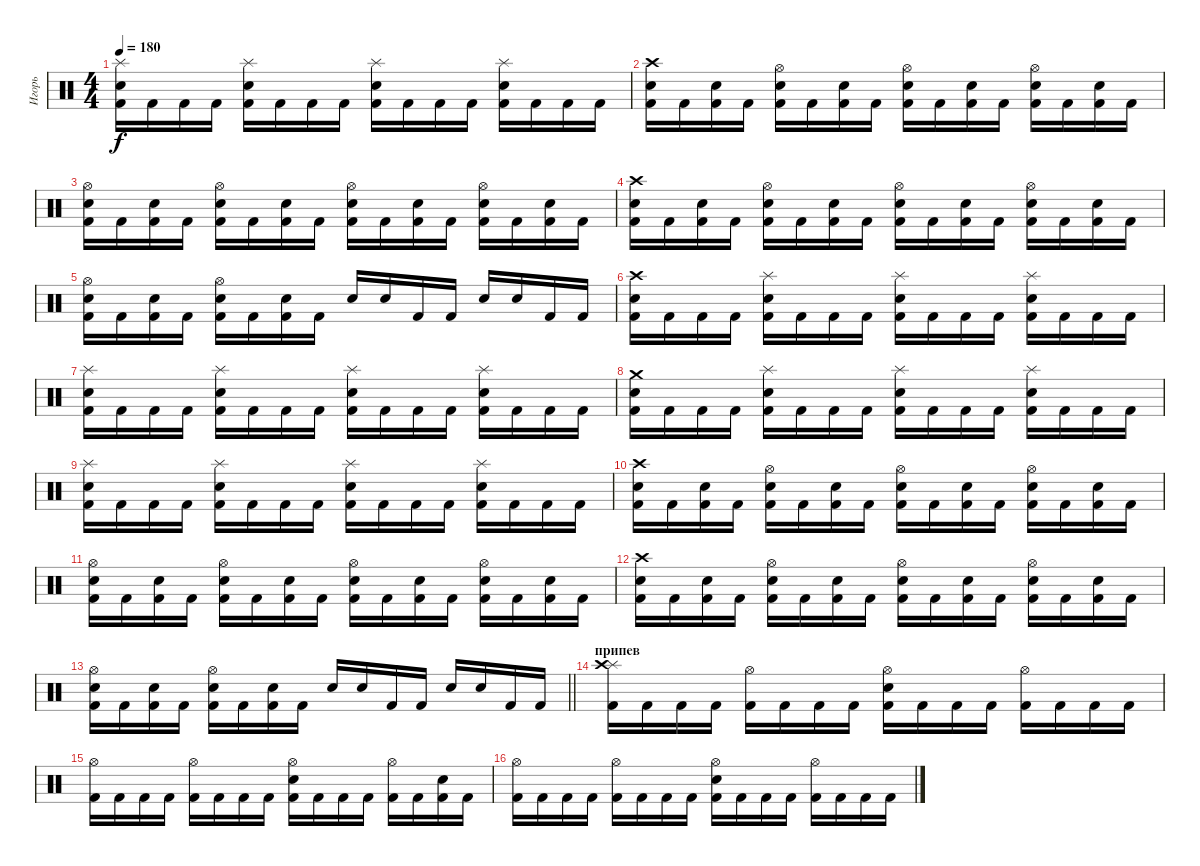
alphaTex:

\track ("Игорь" "Игорь") {instrument percussion}
\staff {score}
\articulation defaults
\ts (4 4)
\tempo 180
\clef neutral
\ks c
("Splash (hit)" "Electric Snare (hit)" "Kick (hit) 2").16{dy f} "Kick (hit) 2".16 "Kick (hit) 2".16 "Kick (hit) 2".16 ("Splash (hit)" "Electric Snare (hit)" "Kick (hit) 2").16 "Kick (hit) 2".16 "Kick (hit) 2".16 "Kick (hit) 2".16 ("Splash (hit)" "Electric Snare (hit)" "Kick (hit) 2").16 "Kick (hit) 2".16 "Kick (hit) 2".16 "Kick (hit) 2".16 ("Splash (hit)" "Electric Snare (hit)" "Kick (hit) 2").16 "Kick (hit) 2".16 "Kick (hit) 2".16 "Kick (hit) 2".16 |
("Crash high (hit)" "Electric Snare (hit)" "Kick (hit) 2").16 "Kick (hit) 2".16 ("Electric Snare (hit)" "Kick (hit) 2").16 "Kick (hit) 2".16 ("Hi-Hat (open)" "Electric Snare (hit)" "Kick (hit) 2").16 "Kick (hit) 2".16 ("Electric Snare (hit)" "Kick (hit) 2").16 "Kick (hit) 2".16 ("Hi-Hat (open)" "Electric Snare (hit)" "Kick (hit) 2").16 "Kick (hit) 2".16 ("Electric Snare (hit)" "Kick (hit) 2").16 "Kick (hit) 2".16 ("Hi-Hat (open)" "Electric Snare (hit)" "Kick (hit) 2").16 "Kick (hit) 2".16 ("Electric Snare (hit)" "Kick (hit) 2").16 "Kick (hit) 2".16 |
("Hi-Hat (open)" "Electric Snare (hit)" "Kick (hit) 2").16 "Kick (hit) 2".16 ("Electric Snare (hit)" "Kick (hit) 2").16 "Kick (hit) 2".16 ("Hi-Hat (open)" "Electric Snare (hit)" "Kick (hit) 2").16 "Kick (hit) 2".16 ("Electric Snare (hit)" "Kick (hit) 2").16 "Kick (hit) 2".16 ("Hi-Hat (open)" "Electric Snare (hit)" "Kick (hit) 2").16 "Kick (hit) 2".16 ("Electric Snare (hit)" "Kick (hit) 2").16 "Kick (hit) 2".16 ("Hi-Hat (open)" "Electric Snare (hit)" "Kick (hit) 2").16 "Kick (hit) 2".16 ("Electric Snare (hit)" "Kick (hit) 2").16 "Kick (hit) 2".16 |
("Crash high (hit)" "Electric Snare (hit)" "Kick (hit) 2").16 "Kick (hit) 2".16 ("Electric Snare (hit)" "Kick (hit) 2").16 "Kick (hit) 2".16 ("Hi-Hat (open)" "Electric Snare (hit)" "Kick (hit) 2").16 "Kick (hit) 2".16 ("Electric Snare (hit)" "Kick (hit) 2").16 "Kick (hit) 2".16 ("Hi-Hat (open)" "Electric Snare (hit)" "Kick (hit) 2").16 "Kick (hit) 2".16 ("Electric Snare (hit)" "Kick (hit) 2").16 "Kick (hit) 2".16 ("Hi-Hat (open)" "Electric Snare (hit)" "Kick (hit) 2").16 "Kick (hit) 2".16 ("Electric Snare (hit)" "Kick (hit) 2").16 "Kick (hit) 2".16 |
("Hi-Hat (open)" "Electric Snare (hit)" "Kick (hit) 2").16 "Kick (hit) 2".16 ("Electric Snare (hit)" "Kick (hit) 2").16 "Kick (hit) 2".16 ("Hi-Hat (open)" "Electric Snare (hit)" "Kick (hit) 2").16 "Kick (hit) 2".16 ("Electric Snare (hit)" "Kick (hit) 2").16 "Kick (hit) 2".16 "Electric Snare (hit)".16 "Electric Snare (hit)".16 "Kick (hit) 2".16 "Kick (hit) 2".16 "Electric Snare (hit)".16 "Electric Snare (hit)".16 "Kick (hit) 2".16 "Kick (hit) 2".16 |
("Crash high (hit)" "Electric Snare (hit)" "Kick (hit) 2").16 "Kick (hit) 2".16 "Kick (hit) 2".16 "Kick (hit) 2".16 ("Splash (hit)" "Electric Snare (hit)" "Kick (hit) 2").16 "Kick (hit) 2".16 "Kick (hit) 2".16 "Kick (hit) 2".16 ("Splash (hit)" "Electric Snare (hit)" "Kick (hit) 2").16 "Kick (hit) 2".16 "Kick (hit) 2".16 "Kick (hit) 2".16 ("Splash (hit)" "Electric Snare (hit)" "Kick (hit) 2").16 "Kick (hit) 2".16 "Kick (hit) 2".16 "Kick (hit) 2".16 |
("Splash (hit)" "Electric Snare (hit)" "Kick (hit) 2").16 "Kick (hit) 2".16 "Kick (hit) 2".16 "Kick (hit) 2".16 ("Splash (hit)" "Electric Snare (hit)" "Kick (hit) 2").16 "Kick (hit) 2".16 "Kick (hit) 2".16 "Kick (hit) 2".16 ("Splash (hit)" "Electric Snare (hit)" "Kick (hit) 2").16 "Kick (hit) 2".16 "Kick (hit) 2".16 "Kick (hit) 2".16 ("Splash (hit)" "Electric Snare (hit)" "Kick (hit) 2").16 "Kick (hit) 2".16 "Kick (hit) 2".16 "Kick (hit) 2".16 |
("Crash medium (hit)" "Electric Snare (hit)" "Kick (hit) 2").16 "Kick (hit) 2".16 "Kick (hit) 2".16 "Kick (hit) 2".16 ("Splash (hit)" "Electric Snare (hit)" "Kick (hit) 2").16 "Kick (hit) 2".16 "Kick (hit) 2".16 "Kick (hit) 2".16 ("Splash (hit)" "Electric Snare (hit)" "Kick (hit) 2").16 "Kick (hit) 2".16 "Kick (hit) 2".16 "Kick (hit) 2".16 ("Splash (hit)" "Electric Snare (hit)" "Kick (hit) 2").16 "Kick (hit) 2".16 "Kick (hit) 2".16 "Kick (hit) 2".16 |
("Splash (hit)" "Electric Snare (hit)" "Kick (hit) 2").16 "Kick (hit) 2".16 "Kick (hit) 2".16 "Kick (hit) 2".16 ("Splash (hit)" "Electric Snare (hit)" "Kick (hit) 2").16 "Kick (hit) 2".16 "Kick (hit) 2".16 "Kick (hit) 2".16 ("Splash (hit)" "Electric Snare (hit)" "Kick (hit) 2").16 "Kick (hit) 2".16 "Kick (hit) 2".16 "Kick (hit) 2".16 ("Splash (hit)" "Electric Snare (hit)" "Kick (hit) 2").16 "Kick (hit) 2".16 "Kick (hit) 2".16 "Kick (hit) 2".16 |
("Crash high (hit)" "Electric Snare (hit)" "Kick (hit) 2").16 "Kick (hit) 2".16 ("Electric Snare (hit)" "Kick (hit) 2").16 "Kick (hit) 2".16 ("Hi-Hat (open)" "Electric Snare (hit)" "Kick (hit) 2").16 "Kick (hit) 2".16 ("Electric Snare (hit)" "Kick (hit) 2").16 "Kick (hit) 2".16 ("Hi-Hat (open)" "Electric Snare (hit)" "Kick (hit) 2").16 "Kick (hit) 2".16 ("Electric Snare (hit)" "Kick (hit) 2").16 "Kick (hit) 2".16 ("Hi-Hat (open)" "Electric Snare (hit)" "Kick (hit) 2").16 "Kick (hit) 2".16 ("Electric Snare (hit)" "Kick (hit) 2").16 "Kick (hit) 2".16 |
("Hi-Hat (open)" "Electric Snare (hit)" "Kick (hit) 2").16 "Kick (hit) 2".16 ("Electric Snare (hit)" "Kick (hit) 2").16 "Kick (hit) 2".16 ("Hi-Hat (open)" "Electric Snare (hit)" "Kick (hit) 2").16 "Kick (hit) 2".16 ("Electric Snare (hit)" "Kick (hit) 2").16 "Kick (hit) 2".16 ("Hi-Hat (open)" "Electric Snare (hit)" "Kick (hit) 2").16 "Kick (hit) 2".16 ("Electric Snare (hit)" "Kick (hit) 2").16 "Kick (hit) 2".16 ("Hi-Hat (open)" "Electric Snare (hit)" "Kick (hit) 2").16 "Kick (hit) 2".16 ("Electric Snare (hit)" "Kick (hit) 2").16 "Kick (hit) 2".16 |
("Crash high (hit)" "Electric Snare (hit)" "Kick (hit) 2").16 "Kick (hit) 2".16 ("Electric Snare (hit)" "Kick (hit) 2").16 "Kick (hit) 2".16 ("Hi-Hat (open)" "Electric Snare (hit)" "Kick (hit) 2").16 "Kick (hit) 2".16 ("Electric Snare (hit)" "Kick (hit) 2").16 "Kick (hit) 2".16 ("Hi-Hat (open)" "Electric Snare (hit)" "Kick (hit) 2").16 "Kick (hit) 2".16 ("Electric Snare (hit)" "Kick (hit) 2").16 "Kick (hit) 2".16 ("Hi-Hat (open)" "Electric Snare (hit)" "Kick (hit) 2").16 "Kick (hit) 2".16 ("Electric Snare (hit)" "Kick (hit) 2").16 "Kick (hit) 2".16 |
\barLineRight lightlight
("Hi-Hat (open)" "Electric Snare (hit)" "Kick (hit) 2").16 "Kick (hit) 2".16 ("Electric Snare (hit)" "Kick (hit) 2").16 "Kick (hit) 2".16 ("Hi-Hat (open)" "Electric Snare (hit)" "Kick (hit) 2").16 "Kick (hit) 2".16 ("Electric Snare (hit)" "Kick (hit) 2").16 "Kick (hit) 2".16 "Electric Snare (hit)".16 "Electric Snare (hit)".16 "Kick (hit) 2".16 "Kick (hit) 2".16 "Electric Snare (hit)".16 "Electric Snare (hit)".16 "Kick (hit) 2".16 "Kick (hit) 2".16 |
\section ("" "припев")
("Splash (hit)" "Crash high (hit)" "Kick (hit) 2").16 "Kick (hit) 2".16 "Kick (hit) 2".16 "Kick (hit) 2".16 ("Hi-Hat (open)" "Kick (hit) 2").16 "Kick (hit) 2".16 "Kick (hit) 2".16 "Kick (hit) 2".16 ("Hi-Hat (open)" "Electric Snare (hit)" "Kick (hit) 2").16 "Kick (hit) 2".16 "Kick (hit) 2".16 "Kick (hit) 2".16 ("Hi-Hat (open)" "Kick (hit) 2").16 "Kick (hit) 2".16 "Kick (hit) 2".16 "Kick (hit) 2".16 |
("Hi-Hat (open)" "Kick (hit) 2").16 "Kick (hit) 2".16 "Kick (hit) 2".16 "Kick (hit) 2".16 ("Hi-Hat (open)" "Kick (hit) 2").16 "Kick (hit) 2".16 "Kick (hit) 2".16 "Kick (hit) 2".16 ("Hi-Hat (open)" "Electric Snare (hit)" "Kick (hit) 2").16 "Kick (hit) 2".16 "Kick (hit) 2".16 "Kick (hit) 2".16 ("Hi-Hat (open)" "Kick (hit) 2").16 "Kick (hit) 2".16 ("Electric Snare (hit)" "Kick (hit) 2").16 "Kick (hit) 2".16 |
("Hi-Hat (open)" "Kick (hit) 2").16 "Kick (hit) 2".16 "Kick (hit) 2".16 "Kick (hit) 2".16 ("Hi-Hat (open)" "Kick (hit) 2").16 "Kick (hit) 2".16 "Kick (hit) 2".16 "Kick (hit) 2".16 ("Hi-Hat (open)" "Electric Snare (hit)" "Kick (hit) 2").16 "Kick (hit) 2".16 "Kick (hit) 2".16 "Kick (hit) 2".16 ("Hi-Hat (open)" "Kick (hit) 2").16 "Kick (hit) 2".16 "Kick (hit) 2".16 "Kick (hit) 2".16
